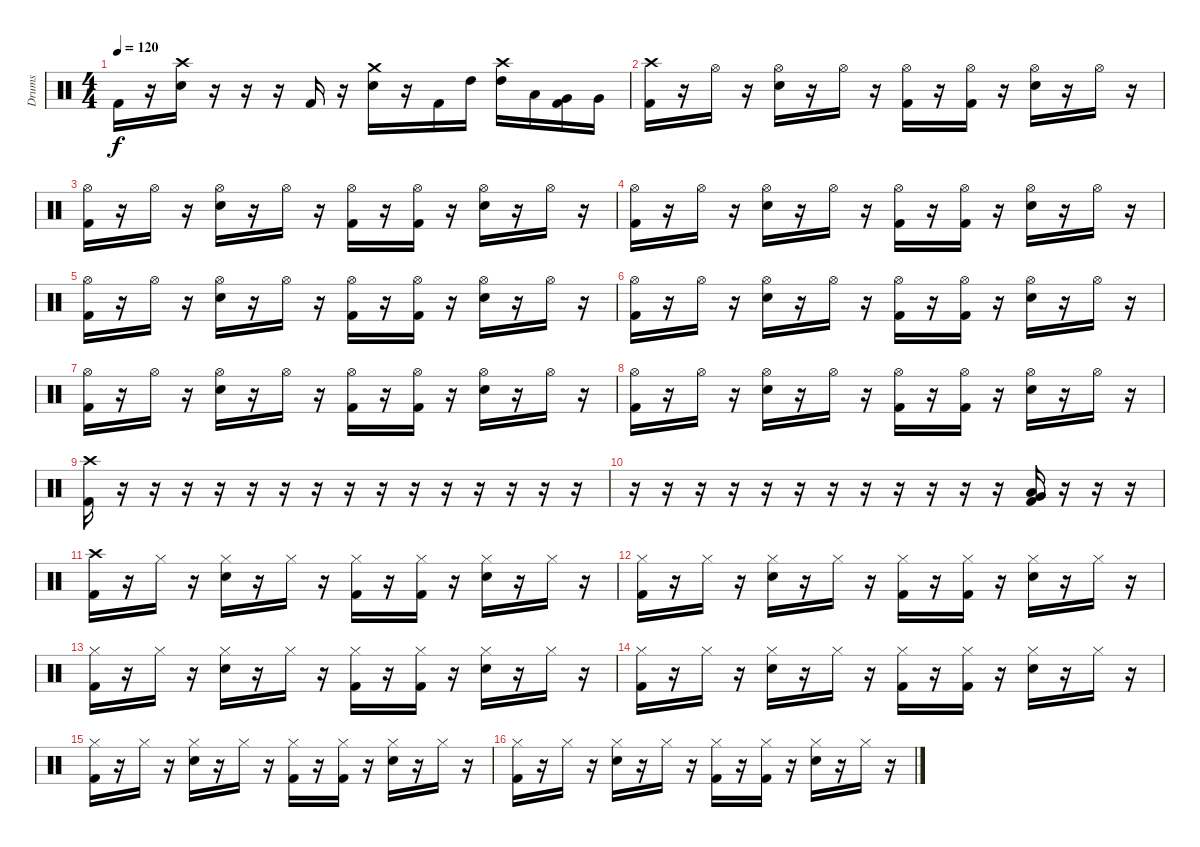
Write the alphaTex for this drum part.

\track ("Drums" "Drums") {instrument percussion}
\staff {score}
\articulation defaults
\ts (4 4)
\tempo 120
\clef neutral
\ks c "Kick (hit) 2".16{dy f}
r.16 ("Electric Snare (hit)" "Crash high (hit)").16 r.16 r.16 r.16 "Kick (hit) 2".16 r.16 ("Electric Snare (hit)" "Crash medium (hit)").16 r.16 "Kick (hit) 2".16 "High Tom (hit)".16 ("High Tom (hit)" "Crash high (hit)").16 "Low Tom (hit)".16 ("Kick (hit) 2" "Very Low Tom (hit)").16 "Very Low Tom (hit)".16 |
("Kick (hit) 2" "Crash high (hit)").16 r.16 "Hi-Hat (open)".16 r.16 ("Electric Snare (hit)" "Hi-Hat (open)").16 r.16 "Hi-Hat (open)".16 r.16 ("Kick (hit) 2" "Hi-Hat (open)").16 r.16 ("Kick (hit) 2" "Hi-Hat (open)").16 r.16 ("Electric Snare (hit)" "Hi-Hat (open)").16 r.16 "Hi-Hat (open)".16 r.16 |
("Kick (hit) 2" "Hi-Hat (open)").16 r.16 "Hi-Hat (open)".16 r.16 ("Electric Snare (hit)" "Hi-Hat (open)").16 r.16 "Hi-Hat (open)".16 r.16 ("Kick (hit) 2" "Hi-Hat (open)").16 r.16 ("Kick (hit) 2" "Hi-Hat (open)").16 r.16 ("Electric Snare (hit)" "Hi-Hat (open)").16 r.16 "Hi-Hat (open)".16 r.16 |
("Kick (hit) 2" "Hi-Hat (open)").16 r.16 "Hi-Hat (open)".16 r.16 ("Electric Snare (hit)" "Hi-Hat (open)").16 r.16 "Hi-Hat (open)".16 r.16 ("Kick (hit) 2" "Hi-Hat (open)").16 r.16 ("Kick (hit) 2" "Hi-Hat (open)").16 r.16 ("Electric Snare (hit)" "Hi-Hat (open)").16 r.16 "Hi-Hat (open)".16 r.16 |
("Kick (hit) 2" "Hi-Hat (open)").16 r.16 "Hi-Hat (open)".16 r.16 ("Electric Snare (hit)" "Hi-Hat (open)").16 r.16 "Hi-Hat (open)".16 r.16 ("Kick (hit) 2" "Hi-Hat (open)").16 r.16 ("Kick (hit) 2" "Hi-Hat (open)").16 r.16 ("Electric Snare (hit)" "Hi-Hat (open)").16 r.16 "Hi-Hat (open)".16 r.16 |
("Kick (hit) 2" "Hi-Hat (open)").16 r.16 "Hi-Hat (open)".16 r.16 ("Electric Snare (hit)" "Hi-Hat (open)").16 r.16 "Hi-Hat (open)".16 r.16 ("Kick (hit) 2" "Hi-Hat (open)").16 r.16 ("Kick (hit) 2" "Hi-Hat (open)").16 r.16 ("Electric Snare (hit)" "Hi-Hat (open)").16 r.16 "Hi-Hat (open)".16 r.16 |
("Kick (hit) 2" "Hi-Hat (open)").16 r.16 "Hi-Hat (open)".16 r.16 ("Electric Snare (hit)" "Hi-Hat (open)").16 r.16 "Hi-Hat (open)".16 r.16 ("Kick (hit) 2" "Hi-Hat (open)").16 r.16 ("Kick (hit) 2" "Hi-Hat (open)").16 r.16 ("Electric Snare (hit)" "Hi-Hat (open)").16 r.16 "Hi-Hat (open)".16 r.16 |
("Kick (hit) 2" "Hi-Hat (open)").16 r.16 "Hi-Hat (open)".16 r.16 ("Electric Snare (hit)" "Hi-Hat (open)").16 r.16 "Hi-Hat (open)".16 r.16 ("Kick (hit) 2" "Hi-Hat (open)").16 r.16 ("Kick (hit) 2" "Hi-Hat (open)").16 r.16 ("Electric Snare (hit)" "Hi-Hat (open)").16 r.16 "Hi-Hat (open)".16 r.16 |
("Kick (hit) 2" "Crash high (hit)").16 r.16 r.16 r.16 r.16 r.16 r.16 r.16 r.16 r.16 r.16 r.16 r.16 r.16 r.16 r.16 |
r.16 r.16 r.16 r.16 r.16 r.16 r.16 r.16 r.16 r.16 r.16 r.16 ("Kick (hit) 2" "Low Tom (hit)" "Very Low Tom (hit)").16 r.16 r.16 r.16 |
("Kick (hit) 2" "Crash high (hit)").16 r.16 "Hi-Hat (closed)".16 r.16 ("Electric Snare (hit)" "Hi-Hat (closed)").16 r.16 "Hi-Hat (closed)".16 r.16 ("Kick (hit) 2" "Hi-Hat (closed)").16 r.16 ("Kick (hit) 2" "Hi-Hat (closed)").16 r.16 ("Electric Snare (hit)" "Hi-Hat (closed)").16 r.16 "Hi-Hat (closed)".16 r.16 |
("Kick (hit) 2" "Hi-Hat (closed)").16 r.16 "Hi-Hat (closed)".16 r.16 ("Electric Snare (hit)" "Hi-Hat (closed)").16 r.16 "Hi-Hat (closed)".16 r.16 ("Kick (hit) 2" "Hi-Hat (closed)").16 r.16 ("Kick (hit) 2" "Hi-Hat (closed)").16 r.16 ("Electric Snare (hit)" "Hi-Hat (closed)").16 r.16 "Hi-Hat (closed)".16 r.16 |
("Kick (hit) 2" "Hi-Hat (closed)").16 r.16 "Hi-Hat (closed)".16 r.16 ("Electric Snare (hit)" "Hi-Hat (closed)").16 r.16 "Hi-Hat (closed)".16 r.16 ("Kick (hit) 2" "Hi-Hat (closed)").16 r.16 ("Kick (hit) 2" "Hi-Hat (closed)").16 r.16 ("Electric Snare (hit)" "Hi-Hat (closed)").16 r.16 "Hi-Hat (closed)".16 r.16 |
("Kick (hit) 2" "Hi-Hat (closed)").16 r.16 "Hi-Hat (closed)".16 r.16 ("Electric Snare (hit)" "Hi-Hat (closed)").16 r.16 "Hi-Hat (closed)".16 r.16 ("Kick (hit) 2" "Hi-Hat (closed)").16 r.16 ("Kick (hit) 2" "Hi-Hat (closed)").16 r.16 ("Electric Snare (hit)" "Hi-Hat (closed)").16 r.16 "Hi-Hat (closed)".16 r.16 |
("Kick (hit) 2" "Hi-Hat (closed)").16 r.16 "Hi-Hat (closed)".16 r.16 ("Electric Snare (hit)" "Hi-Hat (closed)").16 r.16 "Hi-Hat (closed)".16 r.16 ("Kick (hit) 2" "Hi-Hat (closed)").16 r.16 ("Kick (hit) 2" "Hi-Hat (closed)").16 r.16 ("Electric Snare (hit)" "Hi-Hat (closed)").16 r.16 "Hi-Hat (closed)".16 r.16 |
("Kick (hit) 2" "Hi-Hat (closed)").16 r.16 "Hi-Hat (closed)".16 r.16 ("Electric Snare (hit)" "Hi-Hat (closed)").16 r.16 "Hi-Hat (closed)".16 r.16 ("Kick (hit) 2" "Hi-Hat (closed)").16 r.16 ("Kick (hit) 2" "Hi-Hat (closed)").16 r.16 ("Electric Snare (hit)" "Hi-Hat (closed)").16 r.16 "Hi-Hat (closed)".16 r.16
